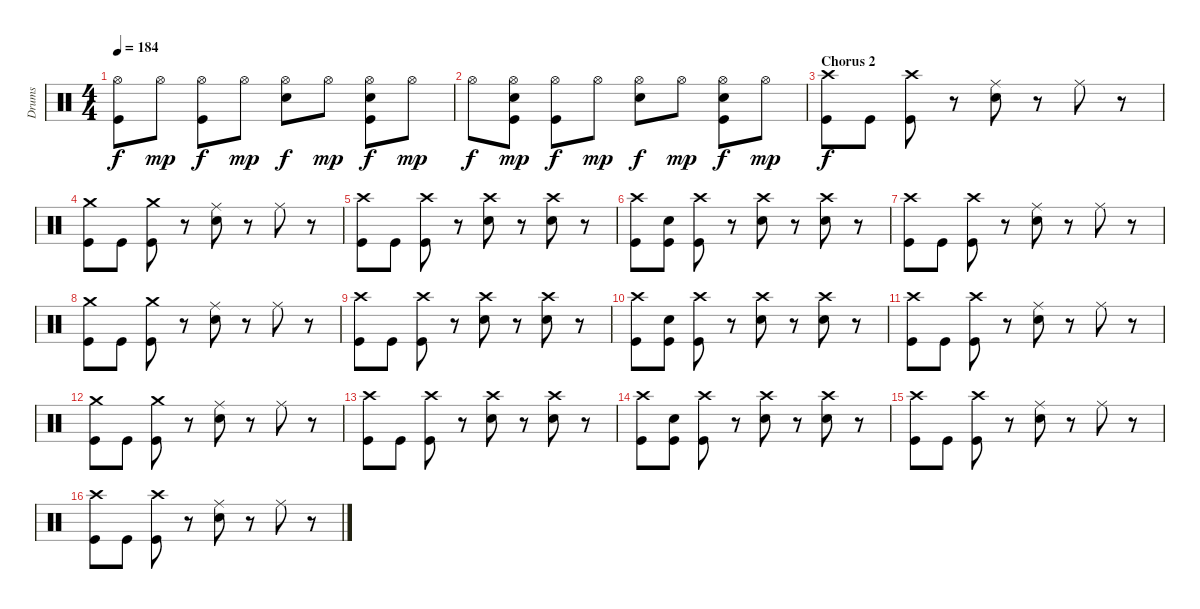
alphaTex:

\track ("Drums" "Drums") {instrument percussion}
\staff {score}
\articulation defaults
\ts (4 4)
\tempo 184
\clef neutral
\ks c
("Hi-Hat (open)" "Kick (hit)").8{dy f} "Hi-Hat (open)".8{dy mp} ("Hi-Hat (open)" "Kick (hit)").8{dy f} "Hi-Hat (open)".8{dy mp} ("Hi-Hat (open)" "Electric Snare (hit)").8{dy f} "Hi-Hat (open)".8{dy mp} ("Hi-Hat (open)" "Electric Snare (hit)" "Kick (hit)").8{dy f} "Hi-Hat (open)".8{dy mp} |
"Hi-Hat (open)".8{dy f} ("Hi-Hat (open)" "Electric Snare (hit)" "Kick (hit)").8{dy mp} ("Hi-Hat (open)" "Kick (hit)").8{dy f} "Hi-Hat (open)".8{dy mp} ("Hi-Hat (open)" "Electric Snare (hit)").8{dy f} "Hi-Hat (open)".8{dy mp} ("Hi-Hat (open)" "Electric Snare (hit)" "Kick (hit)").8{dy f} "Hi-Hat (open)".8{dy mp} |
\section ("" "Chorus 2")
("Crash high (hit)" "Kick (hit)").8{dy f} "Kick (hit)".8 ("Crash high (hit)" "Kick (hit)").8 r.8 ("Ride (middle)" "Electric Snare (hit)").8 r.8 "Ride (middle)".8 r.8 |
("Crash medium (hit)" "Kick (hit)").8 "Kick (hit)".8 ("Crash medium (hit)" "Kick (hit)").8 r.8 ("Ride (middle)" "Electric Snare (hit)").8 r.8 "Ride (middle)".8 r.8 |
("Crash high (hit)" "Kick (hit)").8 "Kick (hit)".8 ("Crash high (hit)" "Kick (hit)").8 r.8 ("Crash high (hit)" "Electric Snare (hit)").8 r.8 ("Crash high (hit)" "Electric Snare (hit)").8 r.8 |
("Crash high (hit)" "Kick (hit)").8 ("Electric Snare (hit)" "Kick (hit)").8 ("Crash high (hit)" "Kick (hit)").8 r.8 ("Crash high (hit)" "Electric Snare (hit)").8 r.8 ("Crash high (hit)" "Electric Snare (hit)").8 r.8 |
("Crash high (hit)" "Kick (hit)").8 "Kick (hit)".8 ("Crash high (hit)" "Kick (hit)").8 r.8 ("Ride (middle)" "Electric Snare (hit)").8 r.8 "Ride (middle)".8 r.8 |
("Crash medium (hit)" "Kick (hit)").8 "Kick (hit)".8 ("Crash medium (hit)" "Kick (hit)").8 r.8 ("Ride (middle)" "Electric Snare (hit)").8 r.8 "Ride (middle)".8 r.8 |
("Crash high (hit)" "Kick (hit)").8 "Kick (hit)".8 ("Crash high (hit)" "Kick (hit)").8 r.8 ("Crash high (hit)" "Electric Snare (hit)").8 r.8 ("Crash high (hit)" "Electric Snare (hit)").8 r.8 |
("Crash high (hit)" "Kick (hit)").8 ("Electric Snare (hit)" "Kick (hit)").8 ("Crash high (hit)" "Kick (hit)").8 r.8 ("Crash high (hit)" "Electric Snare (hit)").8 r.8 ("Crash high (hit)" "Electric Snare (hit)").8 r.8 |
("Crash high (hit)" "Kick (hit)").8 "Kick (hit)".8 ("Crash high (hit)" "Kick (hit)").8 r.8 ("Ride (middle)" "Electric Snare (hit)").8 r.8 "Ride (middle)".8 r.8 |
("Crash medium (hit)" "Kick (hit)").8 "Kick (hit)".8 ("Crash medium (hit)" "Kick (hit)").8 r.8 ("Ride (middle)" "Electric Snare (hit)").8 r.8 "Ride (middle)".8 r.8 |
("Crash high (hit)" "Kick (hit)").8 "Kick (hit)".8 ("Crash high (hit)" "Kick (hit)").8 r.8 ("Crash high (hit)" "Electric Snare (hit)").8 r.8 ("Crash high (hit)" "Electric Snare (hit)").8 r.8 |
("Crash high (hit)" "Kick (hit)").8 ("Electric Snare (hit)" "Kick (hit)").8 ("Crash high (hit)" "Kick (hit)").8 r.8 ("Crash high (hit)" "Electric Snare (hit)").8 r.8 ("Crash high (hit)" "Electric Snare (hit)").8 r.8 |
("Crash high (hit)" "Kick (hit)").8 "Kick (hit)".8 ("Crash high (hit)" "Kick (hit)").8 r.8 ("Ride (middle)" "Electric Snare (hit)").8 r.8 "Ride (middle)".8 r.8 |
("Crash high (hit)" "Kick (hit)").8 "Kick (hit)".8 ("Crash high (hit)" "Kick (hit)").8 r.8 ("Ride (middle)" "Electric Snare (hit)").8 r.8 "Ride (middle)".8 r.8
